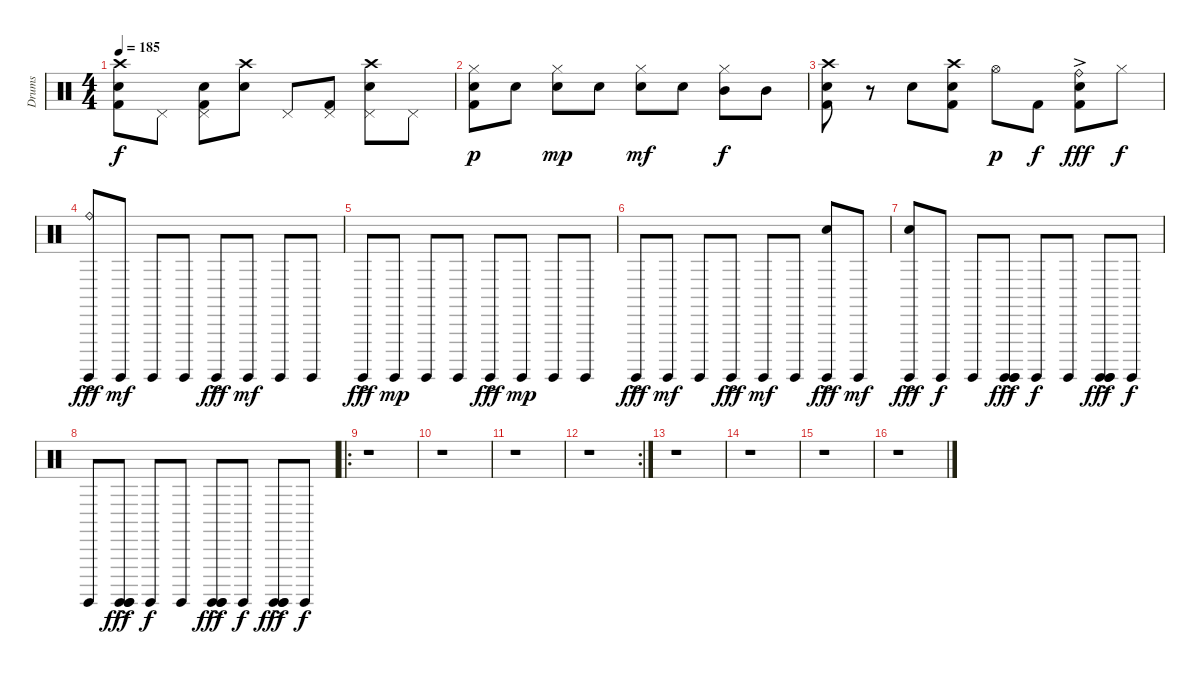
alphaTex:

\track ("Drums" "Drums") {instrument percussion}
\staff {score}
\articulation defaults
\ts (4 4)
\tempo 185
\clef neutral
\ks c
("Crash high (hit)" "Electric Snare (hit)" "Kick (hit) 2").8{dy f} "Pedal Hi-Hat (hit)".8 ("Pedal Hi-Hat (hit)" "Electric Snare (hit)" "Kick (hit) 2").8 ("Crash high (hit)" "Electric Snare (hit)").8 "Pedal Hi-Hat (hit)".8 ("Pedal Hi-Hat (hit)" "Kick (hit) 2").8 ("Crash high (hit)" "Pedal Hi-Hat (hit)" "Electric Snare (hit)").8 "Pedal Hi-Hat (hit)".8 |
("Hi-Hat (closed)" "Electric Snare (hit)" "Kick (hit) 2").8{dy p} "Electric Snare (hit)".8 ("Hi-Hat (closed)" "Electric Snare (hit)").8{dy mp} "Electric Snare (hit)".8 ("Hi-Hat (closed)" "Electric Snare (hit)").8{dy mf} "Electric Snare (hit)".8 ("Hi-Hat (closed)" "Mid Tom (hit)").8{dy f} "Mid Tom (hit)".8 |
("Crash high (hit)" "Electric Snare (hit)" "Kick (hit) 2").8 r.8 "Electric Snare (hit)".8 ("Crash high (hit)" "Electric Snare (hit)" "Kick (hit) 2").8 "Hi-Hat (open)".8{dy p} "Kick (hit) 2".8{dy f} ("Ride (bell)"{ac} "Electric Snare (hit)" "Kick (hit) 2").8{dy fff} "Hi-Hat (closed)".8{dy f} |
("Ride (bell)"{ac} "Surdo (hit)").8{dy fff} "Surdo (hit)".8{dy mf} "Surdo (hit)".8 "Surdo (hit)".8 "Surdo (hit)"{ac}.8{dy fff} "Surdo (hit)".8{dy mf} "Surdo (hit)".8 "Surdo (hit)".8 |
"Surdo (hit)"{ac}.8{dy fff volume 16} "Surdo (hit)".8{dy mp} "Surdo (hit)".8 "Surdo (hit)".8 "Surdo (hit)"{ac}.8{dy fff} "Surdo (hit)".8{dy mp} "Surdo (hit)".8 "Surdo (hit)".8 |
"Surdo (hit)"{ac}.8{dy fff} "Surdo (hit)".8{dy mf} "Surdo (hit)".8 "Surdo (hit)"{ac}.8{dy fff} "Surdo (hit)".8{dy mf} "Surdo (hit)".8 ("Electric Snare (hit)" "Surdo (hit)"{ac}).8{dy fff} "Surdo (hit)".8{dy mf} |
("Electric Snare (hit)" "Surdo (hit)"{ac}).8{dy fff} "Surdo (hit)".8{dy f} "Surdo (hit)".8 ("Surdo (hit)"{ac} "Surdo (hit)"{ac} "Surdo (hit)"{ac}).8{dy fff} "Surdo (hit)".8{dy f} "Surdo (hit)".8 ("Surdo (hit)"{ac} "Surdo (hit)"{ac} "Surdo (hit)"{ac}).8{dy fff} "Surdo (hit)".8{dy f} |
"Surdo (hit)".8 ("Surdo (hit)"{ac} "Surdo (hit)"{ac} "Surdo (hit)"{ac}).8{dy fff} "Surdo (hit)".8{dy f} "Surdo (hit)".8 ("Surdo (hit)"{ac} "Surdo (hit)"{ac} "Surdo (hit)"{ac}).8{dy fff} "Surdo (hit)".8{dy f} ("Surdo (hit)"{ac} "Surdo (hit)"{ac} "Surdo (hit)"{ac}).8{dy fff} "Surdo (hit)".8{dy f} |
\ro
r.1 |
r.1 |
r.1 |
\rc 2
r.1 |
r.1 |
r.1 |
r.1 |
r.1
